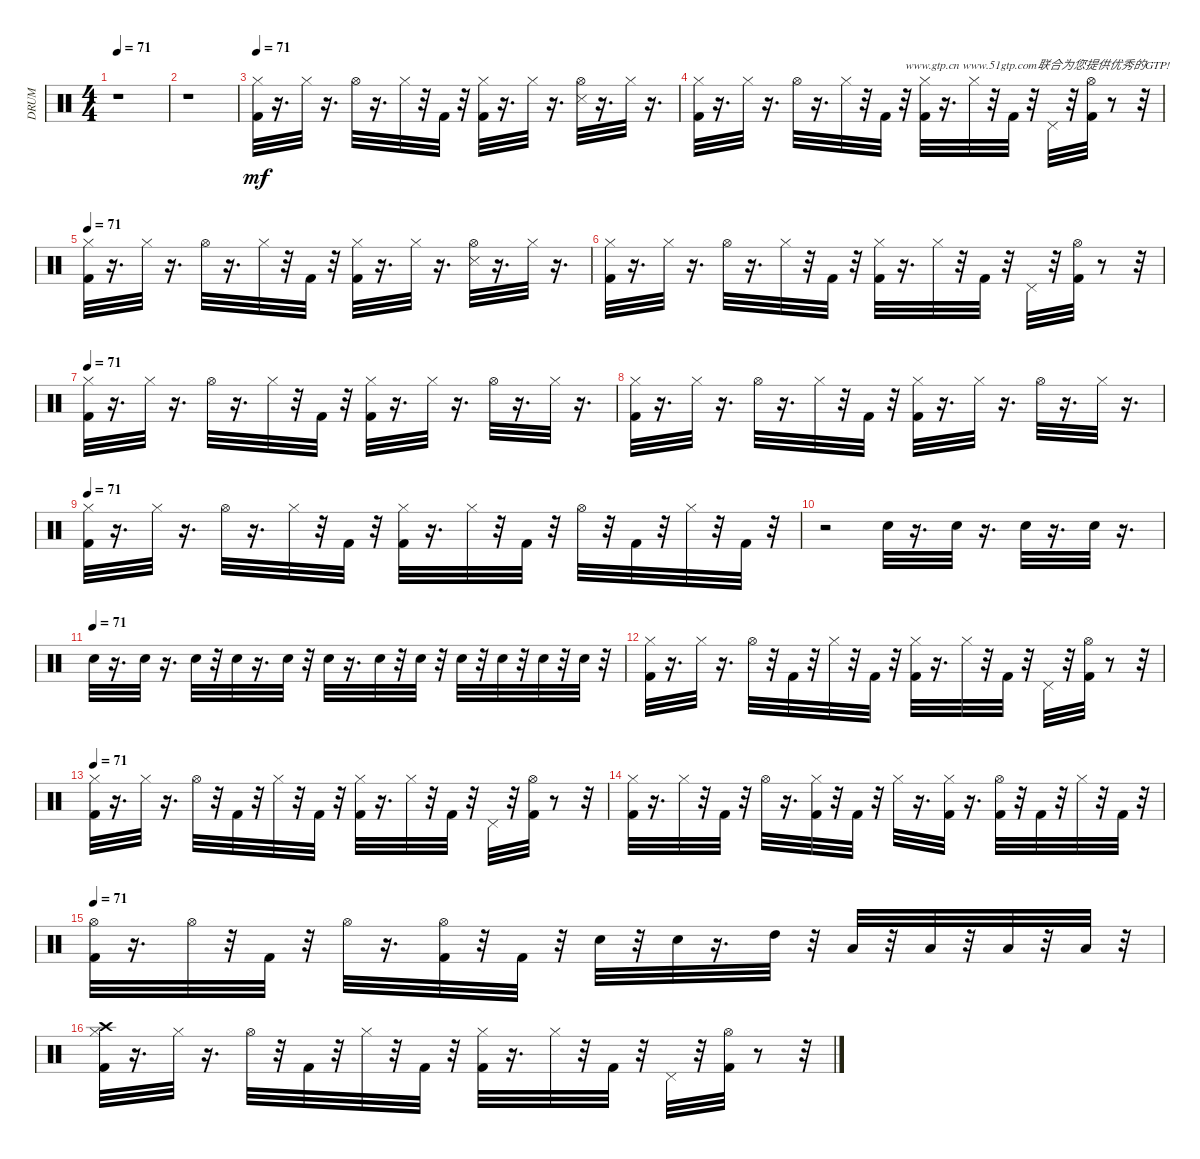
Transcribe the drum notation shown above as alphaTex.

\track ("DRUM" "DRUM") {instrument percussion}
\staff {score}
\articulation defaults
\ts (4 4)
\tempo 71
\clef neutral
\ks c
r.1{dy mf} |
r.1 |
\tempo 71
("Kick (hit) 2" "Hi-Hat (closed)").32{volume 14} r.16{d} "Hi-Hat (closed)".32 r.16{d} "Hi-Hat (open)".32 r.16{d} "Hi-Hat (closed)".32 r.32 "Kick (hit) 2".32 r.32 ("Kick (hit) 2" "Hi-Hat (closed)").32 r.16{d} "Hi-Hat (closed)".32 r.16{d} ("Snare (side stick) 3" "Hi-Hat (open)").32 r.16{d} "Hi-Hat (closed)".32 r.16{d} |
("Kick (hit) 2" "Hi-Hat (closed)").32 r.16{d} "Hi-Hat (closed)".32 r.16{d} "Hi-Hat (open)".32 r.16{d} "Hi-Hat (closed)".32 r.32 "Kick (hit) 2".32 r.32{txt "www.gtp.cn www.51gtp.com联合为您提供优秀的GTP!"} ("Kick (hit) 2" "Hi-Hat (closed)").32 r.16{d} "Hi-Hat (closed)".32 r.32 "Kick (hit) 2".32 r.32 "Pedal Hi-Hat (hit)".32 r.32 ("Kick (hit) 2" "Hi-Hat (open)").32 r.8 r.32 |
\tempo 71
("Kick (hit) 2" "Hi-Hat (closed)").32 r.16{d} "Hi-Hat (closed)".32 r.16{d} "Hi-Hat (open)".32 r.16{d} "Hi-Hat (closed)".32 r.32 "Kick (hit) 2".32 r.32 ("Kick (hit) 2" "Hi-Hat (closed)").32 r.16{d} "Hi-Hat (closed)".32 r.16{d} ("Snare (side stick) 3" "Hi-Hat (open)").32 r.16{d} "Hi-Hat (closed)".32 r.16{d} |
("Kick (hit) 2" "Hi-Hat (closed)").32 r.16{d} "Hi-Hat (closed)".32 r.16{d} "Hi-Hat (open)".32 r.16{d} "Hi-Hat (closed)".32 r.32 "Kick (hit) 2".32 r.32 ("Kick (hit) 2" "Hi-Hat (closed)").32 r.16{d} "Hi-Hat (closed)".32 r.32 "Kick (hit) 2".32 r.32 "Pedal Hi-Hat (hit)".32 r.32 ("Kick (hit) 2" "Hi-Hat (open)").32 r.8 r.32 |
\tempo 71
("Kick (hit) 2" "Hi-Hat (closed)").32 r.16{d} "Hi-Hat (closed)".32 r.16{d} "Hi-Hat (open)".32 r.16{d} "Hi-Hat (closed)".32 r.32 "Kick (hit) 2".32 r.32 ("Kick (hit) 2" "Hi-Hat (closed)").32 r.16{d} "Hi-Hat (closed)".32 r.16{d} "Hi-Hat (open)".32 r.16{d} "Hi-Hat (closed)".32 r.16{d} |
("Kick (hit) 2" "Hi-Hat (closed)").32 r.16{d} "Hi-Hat (closed)".32 r.16{d} "Hi-Hat (open)".32 r.16{d} "Hi-Hat (closed)".32 r.32 "Kick (hit) 2".32 r.32 ("Kick (hit) 2" "Hi-Hat (closed)").32 r.16{d} "Hi-Hat (closed)".32 r.16{d} "Hi-Hat (open)".32 r.16{d} "Hi-Hat (closed)".32 r.16{d} |
\tempo 71
("Kick (hit) 2" "Hi-Hat (closed)").32 r.16{d} "Hi-Hat (closed)".32 r.16{d} "Hi-Hat (open)".32 r.16{d} "Hi-Hat (closed)".32 r.32 "Kick (hit) 2".32 r.32 ("Kick (hit) 2" "Hi-Hat (closed)").32 r.16{d} "Hi-Hat (closed)".32 r.32 "Kick (hit) 2".32 r.32 "Hi-Hat (open)".32 r.32 "Kick (hit) 2".32 r.32 "Hi-Hat (closed)".32 r.32 "Kick (hit) 2".32 r.32 |
r.2 "Snare (hit) 2".32 r.16{d} "Snare (hit) 2".32 r.16{d} "Snare (hit) 2".32 r.16{d} "Snare (hit) 2".32 r.16{d} |
\tempo (71)
"Snare (hit) 2".32 r.16{d} "Snare (hit) 2".32 r.16{d} "Snare (hit) 2".32 r.32 "Snare (hit) 2".32 r.16{d} "Snare (hit) 2".32 r.32 "Snare (hit) 2".32 r.16{d} "Snare (hit) 2".32 r.32 "Snare (hit) 2".32 r.32 "Snare (hit) 2".32 r.32 "Snare (hit) 2".32 r.32 "Snare (hit) 2".32 r.32 "Snare (hit) 2".32 r.32 |
("Kick (hit) 2" "Hi-Hat (closed)").32 r.16{d} "Hi-Hat (closed)".32 r.16{d} "Hi-Hat (open)".32 r.32 "Kick (hit) 2".32 r.32 "Hi-Hat (closed)".32 r.32 "Kick (hit) 2".32 r.32 ("Kick (hit) 2" "Hi-Hat (closed)").32 r.16{d} "Hi-Hat (closed)".32 r.32 "Kick (hit) 2".32 r.32 "Pedal Hi-Hat (hit)".32 r.32 ("Kick (hit) 2" "Hi-Hat (open)").32 r.8 r.32 |
\tempo 71
("Kick (hit) 2" "Hi-Hat (closed)").32 r.16{d} "Hi-Hat (closed)".32 r.16{d} "Hi-Hat (open)".32 r.32 "Kick (hit) 2".32 r.32 "Hi-Hat (closed)".32 r.32 "Kick (hit) 2".32 r.32 ("Kick (hit) 2" "Hi-Hat (closed)").32 r.16{d} "Hi-Hat (closed)".32 r.32 "Kick (hit) 2".32 r.32 "Pedal Hi-Hat (hit)".32 r.32 ("Kick (hit) 2" "Hi-Hat (open)").32 r.8 r.32 |
("Kick (hit) 2" "Hi-Hat (closed)").32 r.16{d} "Hi-Hat (closed)".32 r.32 "Kick (hit) 2".32 r.32 "Hi-Hat (open)".32 r.16{d} ("Kick (hit) 2" "Hi-Hat (closed)").32 r.32 "Kick (hit) 2".32 r.32 "Hi-Hat (closed)".32 r.16{d} ("Kick (hit) 2" "Hi-Hat (closed)").32 r.16{d} ("Kick (hit) 2" "Hi-Hat (open)").32 r.32 "Kick (hit) 2".32 r.32 "Hi-Hat (closed)".32 r.32 "Kick (hit) 2".32 r.32 |
\tempo 71
("Kick (hit) 2" "Hi-Hat (open)").32 r.16{d} "Hi-Hat (open)".32 r.32 "Kick (hit) 2".32 r.32 "Hi-Hat (open)".32 r.16{d} ("Kick (hit) 2" "Hi-Hat (open)").32 r.32 "Kick (hit) 2".32 r.32 "Snare (hit) 2".32 r.32 "Snare (hit) 2".32 r.16{d} "High Tom (hit)".32 r.32 "Low Tom (hit)".32 r.32 "Low Tom (hit)".32 r.32 "Low Floor Tom (hit)".32 r.32 "Low Floor Tom (hit)".32 r.32 |
("Kick (hit) 2" "Hi-Hat (closed)" "Crash high (hit)").32 r.16{d} "Hi-Hat (closed)".32 r.16{d} "Hi-Hat (open)".32 r.32 "Kick (hit) 2".32 r.32 "Hi-Hat (closed)".32 r.32 "Kick (hit) 2".32 r.32 ("Kick (hit) 2" "Hi-Hat (closed)").32 r.16{d} "Hi-Hat (closed)".32 r.32 "Kick (hit) 2".32 r.32 "Pedal Hi-Hat (hit)".32 r.32 ("Kick (hit) 2" "Hi-Hat (open)").32 r.8 r.32
